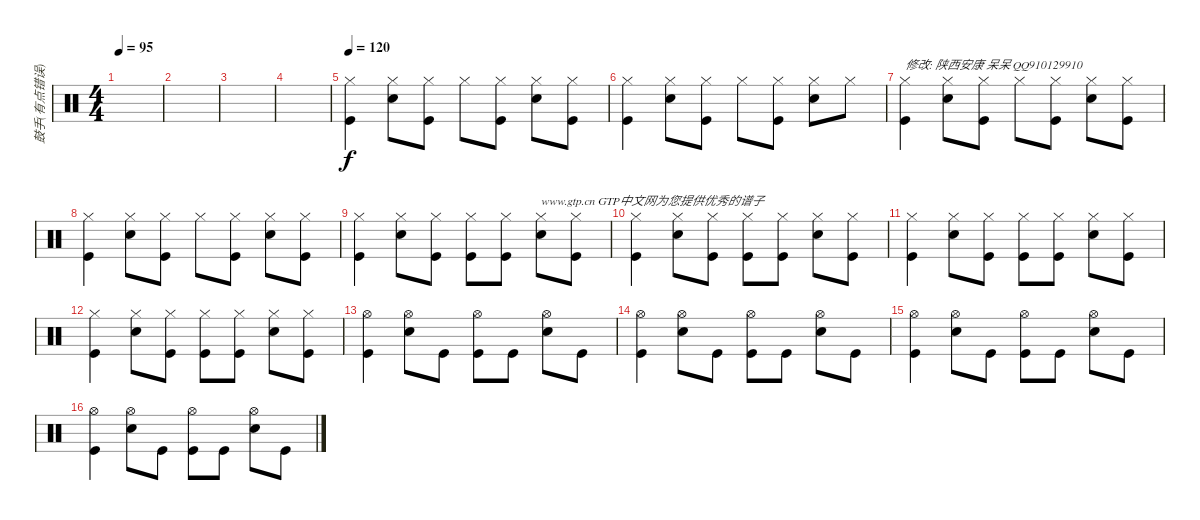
\track ("鼓手(有点错误)" "鼓手(有点错误)") {instrument percussion}
\staff {score}
\articulation defaults
\ts (4 4)
\tempo 95
\clef neutral
\ks c
|
|
|
|
\tempo 120
("Hi-Hat (closed)" "Kick (hit)").4 ("Hi-Hat (closed)" "Electric Snare (hit)").8 ("Hi-Hat (closed)" "Kick (hit)").8 "Hi-Hat (closed)".8 ("Hi-Hat (closed)" "Kick (hit)").8 ("Hi-Hat (closed)" "Electric Snare (hit)").8 ("Hi-Hat (closed)" "Kick (hit)").8 |
("Hi-Hat (closed)" "Kick (hit)").4 ("Hi-Hat (closed)" "Electric Snare (hit)").8 ("Hi-Hat (closed)" "Kick (hit)").8 "Hi-Hat (closed)".8 ("Hi-Hat (closed)" "Kick (hit)").8 ("Hi-Hat (closed)" "Electric Snare (hit)").8 "Hi-Hat (closed)".8 |
("Hi-Hat (closed)" "Kick (hit)").4{txt "修改: 陕西安康 呆呆 QQ910129910"} ("Hi-Hat (closed)" "Electric Snare (hit)").8 ("Hi-Hat (closed)" "Kick (hit)").8 "Hi-Hat (closed)".8 ("Hi-Hat (closed)" "Kick (hit)").8 ("Hi-Hat (closed)" "Electric Snare (hit)").8 ("Hi-Hat (closed)" "Kick (hit)").8 |
("Hi-Hat (closed)" "Kick (hit)").4 ("Hi-Hat (closed)" "Electric Snare (hit)").8 ("Hi-Hat (closed)" "Kick (hit)").8 "Hi-Hat (closed)".8 ("Hi-Hat (closed)" "Kick (hit)").8 ("Hi-Hat (closed)" "Electric Snare (hit)").8 ("Hi-Hat (closed)" "Kick (hit)").8 |
("Hi-Hat (closed)" "Kick (hit)").4 ("Hi-Hat (closed)" "Electric Snare (hit)").8 ("Hi-Hat (closed)" "Kick (hit)").8 ("Hi-Hat (closed)" "Kick (hit)").8 ("Hi-Hat (closed)" "Kick (hit)").8 ("Hi-Hat (closed)" "Electric Snare (hit)").8{txt "www.gtp.cn GTP中文网为您提供优秀的谱子"} ("Hi-Hat (closed)" "Kick (hit)").8 |
("Hi-Hat (closed)" "Kick (hit)").4 ("Hi-Hat (closed)" "Electric Snare (hit)").8 ("Hi-Hat (closed)" "Kick (hit)").8 ("Hi-Hat (closed)" "Kick (hit)").8 ("Hi-Hat (closed)" "Kick (hit)").8 ("Hi-Hat (closed)" "Electric Snare (hit)").8 ("Hi-Hat (closed)" "Kick (hit)").8 |
("Hi-Hat (closed)" "Kick (hit)").4 ("Hi-Hat (closed)" "Electric Snare (hit)").8 ("Hi-Hat (closed)" "Kick (hit)").8 ("Hi-Hat (closed)" "Kick (hit)").8 ("Hi-Hat (closed)" "Kick (hit)").8 ("Hi-Hat (closed)" "Electric Snare (hit)").8 ("Hi-Hat (closed)" "Kick (hit)").8 |
("Hi-Hat (closed)" "Kick (hit)").4 ("Hi-Hat (closed)" "Electric Snare (hit)").8 ("Hi-Hat (closed)" "Kick (hit)").8 ("Hi-Hat (closed)" "Kick (hit)").8 ("Hi-Hat (closed)" "Kick (hit)").8 ("Hi-Hat (closed)" "Electric Snare (hit)").8 ("Hi-Hat (closed)" "Kick (hit)").8 |
("Hi-Hat (open)" "Kick (hit)").4 ("Hi-Hat (open)" "Electric Snare (hit)").8 "Kick (hit)".8 ("Hi-Hat (open)" "Kick (hit)").8 "Kick (hit)".8 ("Hi-Hat (open)" "Electric Snare (hit)").8 "Kick (hit)".8 |
("Hi-Hat (open)" "Kick (hit)").4 ("Hi-Hat (open)" "Electric Snare (hit)").8 "Kick (hit)".8 ("Hi-Hat (open)" "Kick (hit)").8 "Kick (hit)".8 ("Hi-Hat (open)" "Electric Snare (hit)").8 "Kick (hit)".8 |
("Hi-Hat (open)" "Kick (hit)").4 ("Hi-Hat (open)" "Electric Snare (hit)").8 "Kick (hit)".8 ("Hi-Hat (open)" "Kick (hit)").8 "Kick (hit)".8 ("Hi-Hat (open)" "Electric Snare (hit)").8 "Kick (hit)".8 |
("Hi-Hat (open)" "Kick (hit)").4 ("Hi-Hat (open)" "Electric Snare (hit)").8 "Kick (hit)".8 ("Hi-Hat (open)" "Kick (hit)").8 "Kick (hit)".8 ("Hi-Hat (open)" "Electric Snare (hit)").8 "Kick (hit)".8
